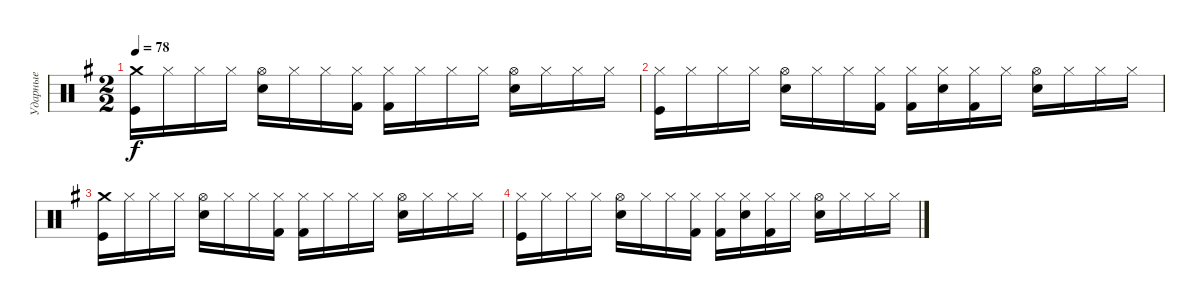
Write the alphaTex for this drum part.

\track ("Ударные" "Ударные") {instrument percussion}
\staff {score}
\articulation defaults
\ts (2 2)
\tempo 78
\clef neutral
\ks eminor
("Crash medium (hit)" "Kick (hit)").16{dy f} "Hi-Hat (closed)".16 "Hi-Hat (closed)".16 "Hi-Hat (closed)".16 ("Hi-Hat (open)" "Electric Snare (hit)").16 "Hi-Hat (closed)".16 "Hi-Hat (closed)".16 ("Hi-Hat (closed)" "Kick (hit) 2").16 ("Hi-Hat (closed)" "Kick (hit) 2").16 "Hi-Hat (closed)".16 "Hi-Hat (closed)".16 "Hi-Hat (closed)".16 ("Hi-Hat (open)" "Electric Snare (hit)").16 "Hi-Hat (closed)".16 "Hi-Hat (closed)".16 "Hi-Hat (closed)".16 |
("Hi-Hat (closed)" "Kick (hit)").16 "Hi-Hat (closed)".16 "Hi-Hat (closed)".16 "Hi-Hat (closed)".16 ("Hi-Hat (open)" "Electric Snare (hit)").16 "Hi-Hat (closed)".16 "Hi-Hat (closed)".16 ("Hi-Hat (closed)" "Kick (hit) 2").16 ("Hi-Hat (closed)" "Kick (hit) 2").16 ("Hi-Hat (closed)" "Electric Snare (hit)").16 ("Hi-Hat (closed)" "Kick (hit) 2").16 "Hi-Hat (closed)".16 ("Hi-Hat (open)" "Electric Snare (hit)").16 "Hi-Hat (closed)".16 "Hi-Hat (closed)".16 "Hi-Hat (closed)".16 |
("Crash medium (hit)" "Kick (hit)").16 "Hi-Hat (closed)".16 "Hi-Hat (closed)".16 "Hi-Hat (closed)".16 ("Hi-Hat (open)" "Electric Snare (hit)").16 "Hi-Hat (closed)".16 "Hi-Hat (closed)".16 ("Hi-Hat (closed)" "Kick (hit) 2").16 ("Hi-Hat (closed)" "Kick (hit) 2").16 "Hi-Hat (closed)".16 "Hi-Hat (closed)".16 "Hi-Hat (closed)".16 ("Hi-Hat (open)" "Electric Snare (hit)").16 "Hi-Hat (closed)".16 "Hi-Hat (closed)".16 "Hi-Hat (closed)".16 |
("Hi-Hat (closed)" "Kick (hit)").16 "Hi-Hat (closed)".16 "Hi-Hat (closed)".16 "Hi-Hat (closed)".16 ("Hi-Hat (open)" "Electric Snare (hit)").16 "Hi-Hat (closed)".16 "Hi-Hat (closed)".16 ("Hi-Hat (closed)" "Kick (hit) 2").16 ("Hi-Hat (closed)" "Kick (hit) 2").16 ("Hi-Hat (closed)" "Electric Snare (hit)").16 ("Hi-Hat (closed)" "Kick (hit) 2").16 "Hi-Hat (closed)".16 ("Hi-Hat (open)" "Electric Snare (hit)").16 "Hi-Hat (closed)".16 "Hi-Hat (closed)".16 "Hi-Hat (closed)".16
